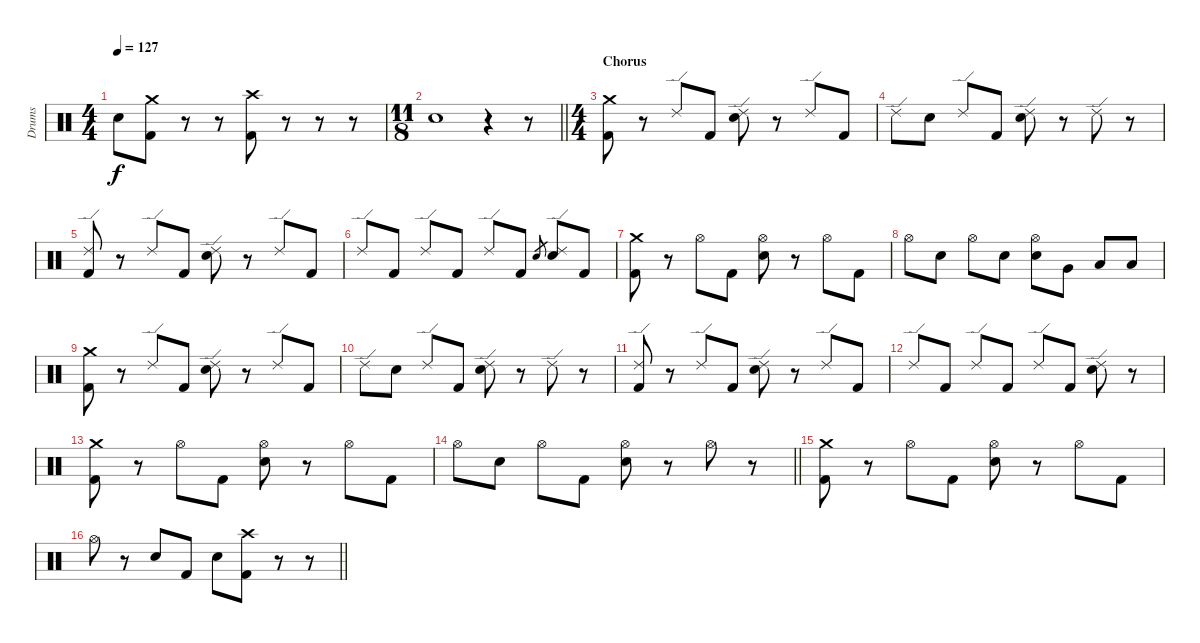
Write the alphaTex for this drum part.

\track ("Drums" "Drums") {instrument percussion}
\staff {score}
\articulation defaults
\ts (4 4)
\tempo 127
\clef neutral
\ks c "Electric Snare (hit)".8{dy f}
("Crash medium (hit)" "Kick (hit) 2").8 r.8 r.8 ("Crash high (hit)" "Kick (hit) 2").8 r.8 r.8 r.8 |
\ts (11 8)
\barLineRight lightlight "Snare (hit)".1
r.4 r.8 |
\ts (4 4)
\section ("" "Chorus")
("Crash medium (hit)" "Kick (hit) 2").8 r.8 "Ride (edge) 2".8 "Kick (hit) 2".8 ("Ride (edge) 2" "Electric Snare (hit)").8 r.8 "Ride (edge) 2".8 "Kick (hit) 2".8 |
"Ride (edge) 2".8 "Electric Snare (hit)".8 "Ride (edge) 2".8 "Kick (hit) 2".8 ("Ride (edge) 2" "Electric Snare (hit)").8 r.8 "Ride (edge) 2".8 r.8 |
("Ride (edge) 2" "Kick (hit) 2").8 r.8 "Ride (edge) 2".8 "Kick (hit) 2".8 ("Ride (edge) 2" "Electric Snare (hit)").8 r.8 "Ride (edge) 2".8 "Kick (hit) 2".8 |
"Ride (edge) 2".8 "Kick (hit) 2".8 "Ride (edge) 2".8 "Kick (hit) 2".8 "Ride (edge) 2".8 "Kick (hit) 2".8 "Electric Snare (hit)".8{gr} ("Ride (edge) 2" "Electric Snare (hit)").8 "Kick (hit) 2".8 |
("Crash medium (hit)" "Kick (hit) 2").8 r.8 "Hi-Hat (open)".8 "Kick (hit) 2".8 ("Hi-Hat (open)" "Electric Snare (hit)").8 r.8 "Hi-Hat (open)".8 "Kick (hit) 2".8 |
"Hi-Hat (open)".8 "Electric Snare (hit)".8 "Hi-Hat (open)".8 "Electric Snare (hit)".8 ("Hi-Hat (open)" "Electric Snare (hit)").8 "Very Low Tom (hit)".8 "Low Tom (hit)".8 "Low Tom (hit)".8 |
("Crash medium (hit)" "Kick (hit) 2").8 r.8 "Ride (edge) 2".8 "Kick (hit) 2".8 ("Ride (edge) 2" "Electric Snare (hit)").8 r.8 "Ride (edge) 2".8 "Kick (hit) 2".8 |
"Ride (edge) 2".8 "Electric Snare (hit)".8 "Ride (edge) 2".8 "Kick (hit) 2".8 ("Ride (edge) 2" "Electric Snare (hit)").8 r.8 "Ride (edge) 2".8 r.8 |
("Ride (edge) 2" "Kick (hit) 2").8 r.8 "Ride (edge) 2".8 "Kick (hit) 2".8 ("Ride (edge) 2" "Electric Snare (hit)").8 r.8 "Ride (edge) 2".8 "Kick (hit) 2".8 |
"Ride (edge) 2".8 "Kick (hit) 2".8 "Ride (edge) 2".8 "Kick (hit) 2".8 "Ride (edge) 2".8 "Kick (hit) 2".8 ("Ride (edge) 2" "Electric Snare (hit)").8 r.8 |
("Crash medium (hit)" "Kick (hit) 2").8 r.8 "Hi-Hat (open)".8 "Kick (hit) 2".8 ("Hi-Hat (open)" "Electric Snare (hit)").8 r.8 "Hi-Hat (open)".8 "Kick (hit) 2".8 |
\barLineRight lightlight "Hi-Hat (open)".8 "Electric Snare (hit)".8 "Hi-Hat (open)".8 "Kick (hit) 2".8
("Hi-Hat (open)" "Electric Snare (hit)").8 r.8 "Hi-Hat (open)".8 r.8 |
("Crash medium (hit)" "Kick (hit) 2").8 r.8 "Hi-Hat (open)".8 "Kick (hit) 2".8 ("Hi-Hat (open)" "Electric Snare (hit)").8 r.8 "Hi-Hat (open)".8 "Kick (hit) 2".8 |
\barLineRight lightlight "Hi-Hat (open)".8
r.8 "Electric Snare (hit)".8 "Kick (hit) 2".8 "Electric Snare (hit)".8 ("Crash high (hit)" "Kick (hit) 2").8 r.8 r.8
